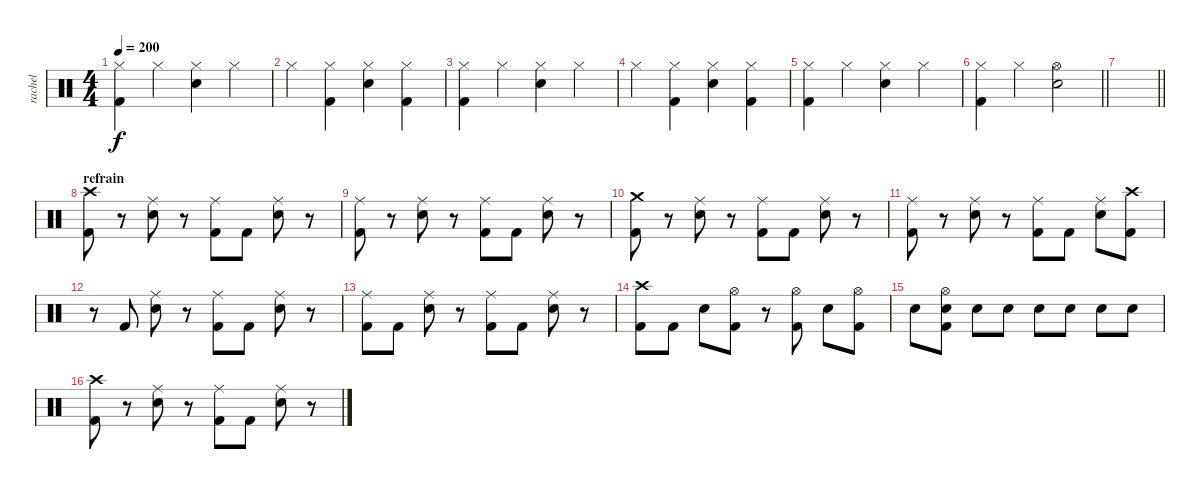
\track ("rachel" "rachel") {instrument percussion}
\staff {score}
\articulation defaults
\ts (4 4)
\tempo 200
\clef neutral
\ks c
("Hi-Hat (closed)" "Kick (hit) 2").4{dy f} "Hi-Hat (closed)".4 ("Hi-Hat (closed)" "Electric Snare (hit)").4 "Hi-Hat (closed)".4 |
"Hi-Hat (closed)".4 ("Hi-Hat (closed)" "Kick (hit) 2").4 ("Hi-Hat (closed)" "Electric Snare (hit)").4 ("Hi-Hat (closed)" "Kick (hit) 2").4 |
("Hi-Hat (closed)" "Kick (hit) 2").4 "Hi-Hat (closed)".4 ("Hi-Hat (closed)" "Electric Snare (hit)").4 "Hi-Hat (closed)".4 |
"Hi-Hat (closed)".4 ("Hi-Hat (closed)" "Kick (hit) 2").4 ("Hi-Hat (closed)" "Electric Snare (hit)").4 ("Hi-Hat (closed)" "Kick (hit) 2").4 |
("Hi-Hat (closed)" "Kick (hit) 2").4 "Hi-Hat (closed)".4 ("Hi-Hat (closed)" "Electric Snare (hit)").4 "Hi-Hat (closed)".4 |
\barLineRight lightlight
("Hi-Hat (closed)" "Kick (hit) 2").4 "Hi-Hat (closed)".4 ("Hi-Hat (open)" "Electric Snare (hit)").2 |
\barLineRight lightlight
|
\section ("" "refrain")
("Crash high (hit)" "Kick (hit) 2").8 r.8 ("Ride (middle)" "Electric Snare (hit)").8 r.8 ("Ride (middle)" "Kick (hit) 2").8 "Kick (hit) 2".8 ("Ride (middle)" "Electric Snare (hit)").8 r.8 |
("Ride (middle)" "Kick (hit) 2").8 r.8 ("Ride (middle)" "Electric Snare (hit)").8 r.8 ("Ride (middle)" "Kick (hit) 2").8 "Kick (hit) 2".8 ("Ride (middle)" "Electric Snare (hit)").8 r.8 |
("Crash medium (hit)" "Kick (hit) 2").8 r.8 ("Ride (middle)" "Electric Snare (hit)").8 r.8 ("Ride (middle)" "Kick (hit) 2").8 "Kick (hit) 2".8 ("Ride (middle)" "Electric Snare (hit)").8 r.8 |
("Ride (middle)" "Kick (hit) 2").8 r.8 ("Ride (middle)" "Electric Snare (hit)").8 r.8 ("Ride (middle)" "Kick (hit) 2").8 "Kick (hit) 2".8 ("Ride (middle)" "Electric Snare (hit)").8 ("Crash high (hit)" "Kick (hit) 2").8 |
r.8 "Kick (hit) 2".8 ("Ride (middle)" "Electric Snare (hit)").8 r.8 ("Ride (middle)" "Kick (hit) 2").8 "Kick (hit) 2".8 ("Ride (middle)" "Electric Snare (hit)").8 r.8 |
("Ride (middle)" "Kick (hit) 2").8 "Kick (hit) 2".8 ("Ride (middle)" "Electric Snare (hit)").8 r.8 ("Ride (middle)" "Kick (hit) 2").8 "Kick (hit) 2".8 ("Ride (middle)" "Electric Snare (hit)").8 r.8 |
("Crash high (hit)" "Kick (hit) 2").8 "Kick (hit) 2".8 "Electric Snare (hit)".8 ("Hi-Hat (open)" "Kick (hit) 2").8 r.8 ("Hi-Hat (open)" "Kick (hit) 2").8 "Electric Snare (hit)".8 ("Hi-Hat (open)" "Kick (hit) 2").8 |
"Electric Snare (hit)".8 ("Hi-Hat (open)" "Electric Snare (hit)" "Kick (hit) 2").8 "Electric Snare (hit)".8 "Electric Snare (hit)".8 "Electric Snare (hit)".8 "Electric Snare (hit)".8 "Electric Snare (hit)".8 "Electric Snare (hit)".8 |
("Crash high (hit)" "Kick (hit) 2").8 r.8 ("Ride (middle)" "Electric Snare (hit)").8 r.8 ("Ride (middle)" "Kick (hit) 2").8 "Kick (hit) 2".8 ("Ride (middle)" "Electric Snare (hit)").8 r.8
